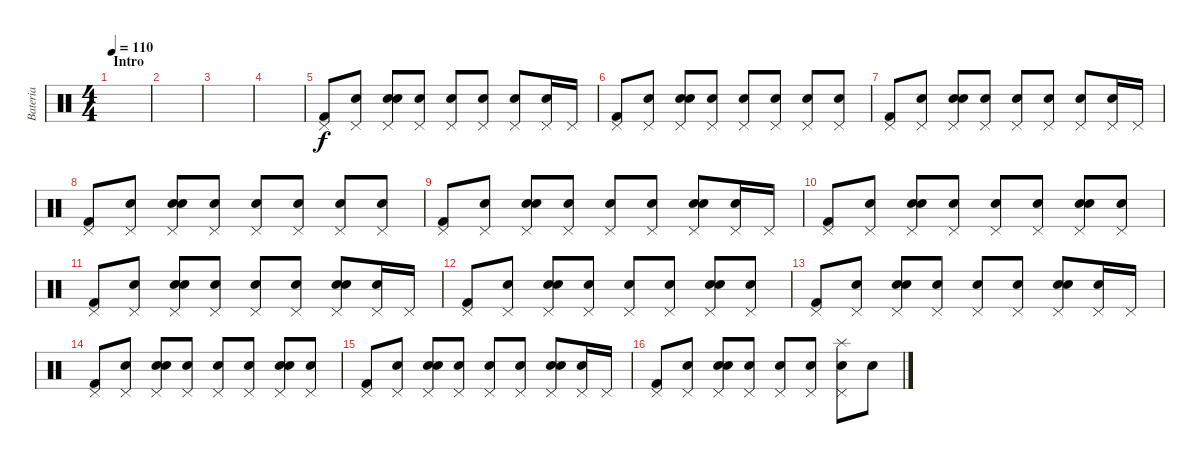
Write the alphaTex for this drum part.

\track ("Bateria" "Bateria") {instrument percussion}
\staff {score}
\articulation defaults
\ts (4 4)
\section ("" "Intro")
\tempo 110
\clef neutral
\ks c
|
|
|
|
("Kick (hit) 2" "Pedal Hi-Hat (hit)").8 ("Snare (hit)" "Pedal Hi-Hat (hit)").8 ("Snare (hit)" "Electric Snare (hit)" "Pedal Hi-Hat (hit)").8 ("Snare (hit)" "Pedal Hi-Hat (hit)").8 ("Snare (hit)" "Pedal Hi-Hat (hit)").8 ("Snare (hit)" "Pedal Hi-Hat (hit)").8 ("Snare (hit)" "Pedal Hi-Hat (hit)").8 ("Snare (hit)" "Pedal Hi-Hat (hit)").16 "Pedal Hi-Hat (hit)".16 |
("Kick (hit) 2" "Pedal Hi-Hat (hit)").8 ("Snare (hit)" "Pedal Hi-Hat (hit)").8 ("Snare (hit)" "Electric Snare (hit)" "Pedal Hi-Hat (hit)").8 ("Snare (hit)" "Pedal Hi-Hat (hit)").8 ("Snare (hit)" "Pedal Hi-Hat (hit)").8 ("Snare (hit)" "Pedal Hi-Hat (hit)").8 ("Snare (hit)" "Pedal Hi-Hat (hit)").8 ("Snare (hit)" "Pedal Hi-Hat (hit)").8 |
("Kick (hit) 2" "Pedal Hi-Hat (hit)").8 ("Snare (hit)" "Pedal Hi-Hat (hit)").8 ("Snare (hit)" "Electric Snare (hit)" "Pedal Hi-Hat (hit)").8 ("Snare (hit)" "Pedal Hi-Hat (hit)").8 ("Snare (hit)" "Pedal Hi-Hat (hit)").8 ("Snare (hit)" "Pedal Hi-Hat (hit)").8 ("Snare (hit)" "Pedal Hi-Hat (hit)").8 ("Snare (hit)" "Pedal Hi-Hat (hit)").16 "Pedal Hi-Hat (hit)".16 |
("Kick (hit) 2" "Pedal Hi-Hat (hit)").8 ("Snare (hit)" "Pedal Hi-Hat (hit)").8 ("Snare (hit)" "Electric Snare (hit)" "Pedal Hi-Hat (hit)").8 ("Snare (hit)" "Pedal Hi-Hat (hit)").8 ("Snare (hit)" "Pedal Hi-Hat (hit)").8 ("Snare (hit)" "Pedal Hi-Hat (hit)").8 ("Snare (hit)" "Pedal Hi-Hat (hit)").8 ("Snare (hit)" "Pedal Hi-Hat (hit)").8 |
("Kick (hit) 2" "Pedal Hi-Hat (hit)").8 ("Snare (hit)" "Pedal Hi-Hat (hit)").8 ("Snare (hit)" "Electric Snare (hit)" "Pedal Hi-Hat (hit)").8 ("Snare (hit)" "Pedal Hi-Hat (hit)").8 ("Snare (hit)" "Pedal Hi-Hat (hit)").8 ("Snare (hit)" "Pedal Hi-Hat (hit)").8 ("Snare (hit)" "Electric Snare (hit)" "Pedal Hi-Hat (hit)").8 ("Snare (hit)" "Pedal Hi-Hat (hit)").16 "Pedal Hi-Hat (hit)".16 |
("Kick (hit) 2" "Pedal Hi-Hat (hit)").8 ("Snare (hit)" "Pedal Hi-Hat (hit)").8 ("Snare (hit)" "Electric Snare (hit)" "Pedal Hi-Hat (hit)").8 ("Snare (hit)" "Pedal Hi-Hat (hit)").8 ("Snare (hit)" "Pedal Hi-Hat (hit)").8 ("Snare (hit)" "Pedal Hi-Hat (hit)").8 ("Snare (hit)" "Electric Snare (hit)" "Pedal Hi-Hat (hit)").8 ("Snare (hit)" "Pedal Hi-Hat (hit)").8 |
("Kick (hit) 2" "Pedal Hi-Hat (hit)").8 ("Snare (hit)" "Pedal Hi-Hat (hit)").8 ("Snare (hit)" "Electric Snare (hit)" "Pedal Hi-Hat (hit)").8 ("Snare (hit)" "Pedal Hi-Hat (hit)").8 ("Snare (hit)" "Pedal Hi-Hat (hit)").8 ("Snare (hit)" "Pedal Hi-Hat (hit)").8 ("Snare (hit)" "Electric Snare (hit)" "Pedal Hi-Hat (hit)").8 ("Snare (hit)" "Pedal Hi-Hat (hit)").16 "Pedal Hi-Hat (hit)".16 |
("Kick (hit) 2" "Pedal Hi-Hat (hit)").8 ("Snare (hit)" "Pedal Hi-Hat (hit)").8 ("Snare (hit)" "Electric Snare (hit)" "Pedal Hi-Hat (hit)").8 ("Snare (hit)" "Pedal Hi-Hat (hit)").8 ("Snare (hit)" "Pedal Hi-Hat (hit)").8 ("Snare (hit)" "Pedal Hi-Hat (hit)").8 ("Snare (hit)" "Electric Snare (hit)" "Pedal Hi-Hat (hit)").8 ("Snare (hit)" "Pedal Hi-Hat (hit)").8 |
("Kick (hit) 2" "Pedal Hi-Hat (hit)").8 ("Snare (hit)" "Pedal Hi-Hat (hit)").8 ("Snare (hit)" "Electric Snare (hit)" "Pedal Hi-Hat (hit)").8 ("Snare (hit)" "Pedal Hi-Hat (hit)").8 ("Snare (hit)" "Pedal Hi-Hat (hit)").8 ("Snare (hit)" "Pedal Hi-Hat (hit)").8 ("Snare (hit)" "Electric Snare (hit)" "Pedal Hi-Hat (hit)").8 ("Snare (hit)" "Pedal Hi-Hat (hit)").16 "Pedal Hi-Hat (hit)".16 |
("Kick (hit) 2" "Pedal Hi-Hat (hit)").8 ("Snare (hit)" "Pedal Hi-Hat (hit)").8 ("Snare (hit)" "Electric Snare (hit)" "Pedal Hi-Hat (hit)").8 ("Snare (hit)" "Pedal Hi-Hat (hit)").8 ("Snare (hit)" "Pedal Hi-Hat (hit)").8 ("Snare (hit)" "Pedal Hi-Hat (hit)").8 ("Snare (hit)" "Electric Snare (hit)" "Pedal Hi-Hat (hit)").8 ("Snare (hit)" "Pedal Hi-Hat (hit)").8 |
("Kick (hit) 2" "Pedal Hi-Hat (hit)").8 ("Snare (hit)" "Pedal Hi-Hat (hit)").8 ("Snare (hit)" "Electric Snare (hit)" "Pedal Hi-Hat (hit)").8 ("Snare (hit)" "Pedal Hi-Hat (hit)").8 ("Snare (hit)" "Pedal Hi-Hat (hit)").8 ("Snare (hit)" "Pedal Hi-Hat (hit)").8 ("Snare (hit)" "Electric Snare (hit)" "Pedal Hi-Hat (hit)").8 ("Snare (hit)" "Pedal Hi-Hat (hit)").16 "Pedal Hi-Hat (hit)".16 |
("Kick (hit) 2" "Pedal Hi-Hat (hit)").8 ("Snare (hit)" "Pedal Hi-Hat (hit)").8 ("Snare (hit)" "Electric Snare (hit)" "Pedal Hi-Hat (hit)").8 ("Snare (hit)" "Pedal Hi-Hat (hit)").8 ("Snare (hit)" "Pedal Hi-Hat (hit)").8 ("Snare (hit)" "Pedal Hi-Hat (hit)").8 ("Snare (hit)" "Splash (hit)" "Pedal Hi-Hat (hit)").8 "Snare (hit)".8
